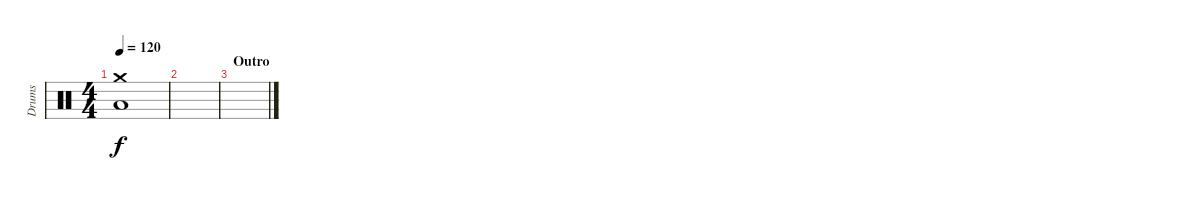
\track ("Drums" "Drums") {instrument percussion}
\staff {score}
\articulation defaults
\ts (4 4)
\tempo 120
\clef neutral
\ks c
("Crash medium (hit)" "Low Floor Tom (hit)").1{dy f} |
|
\section ("" "Outro")
